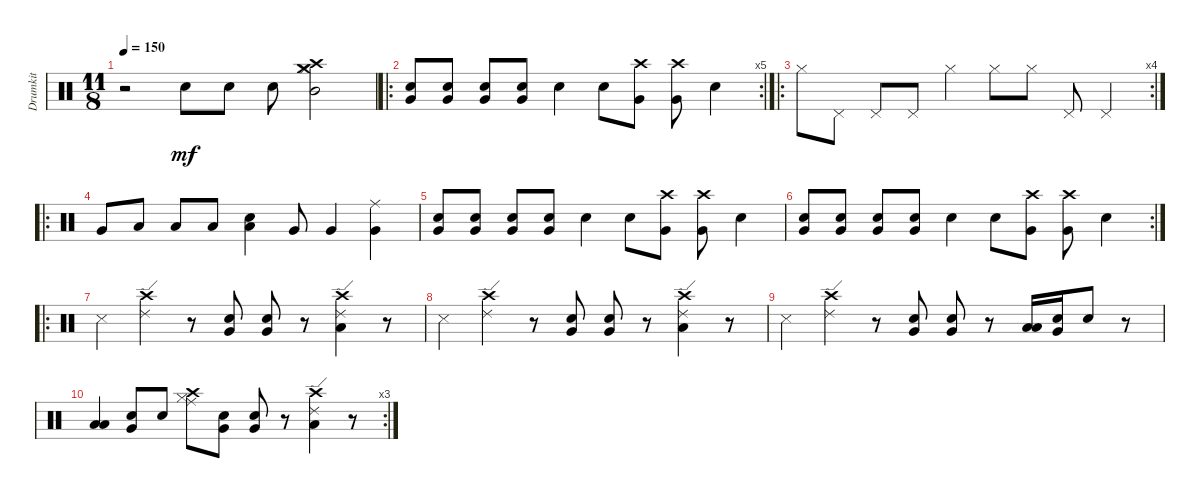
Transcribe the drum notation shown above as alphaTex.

\track ("Drumkit" "Drumkit") {instrument percussion}
\staff {score}
\articulation defaults
\ts (11 8)
\tempo 150
\clef neutral
\ks c
r.2{dy mf} "Snare (hit) 2".8 "Snare (hit) 2".8 "Snare (hit) 2".8 ("Hi-Hat (closed)" "Crash high (hit)" "Crash medium (hit)" "Mid Tom (hit)").2 |
\ro
\rc 5
("Snare (hit) 2" "Very Low Tom (hit)").8 ("Very Low Tom (hit)" "Snare (hit) 2").8 ("Very Low Tom (hit)" "Snare (hit) 2").8 ("Very Low Tom (hit)" "Snare (hit) 2").8 "Snare (hit) 2".4 "Snare (hit) 2".8 ("Very Low Tom (hit)" "Crash high (hit)").8 ("Very Low Tom (hit)" "Crash high (hit)").8 "Snare (hit) 2".4 |
\ro
\rc 4 "Hi-Hat (closed)".8 "Pedal Hi-Hat (hit)".8 "Pedal Hi-Hat (hit)".8 "Pedal Hi-Hat (hit)".8 "Hi-Hat (closed)".4 "Hi-Hat (closed)".8 "Hi-Hat (closed)".8 "Pedal Hi-Hat (hit)".8 "Pedal Hi-Hat (hit)".4
|
\ro "Very Low Tom (hit)".8 "Low Floor Tom (hit)".8 "Low Floor Tom (hit)".8 "Low Floor Tom (hit)".8
("Low Floor Tom (hit)" "Snare (hit) 2").4 "Very Low Tom (hit)".8 "Very Low Tom (hit)".4 ("Ride (middle)" "Very Low Tom (hit)").4 |
("Snare (hit) 2" "Very Low Tom (hit)").8 ("Very Low Tom (hit)" "Snare (hit) 2").8 ("Very Low Tom (hit)" "Snare (hit) 2").8 ("Very Low Tom (hit)" "Snare (hit) 2").8 "Snare (hit) 2".4 "Snare (hit) 2".8 ("Very Low Tom (hit)" "Crash high (hit)").8 ("Very Low Tom (hit)" "Crash high (hit)").8 "Snare (hit) 2".4 |
\rc 2
("Snare (hit) 2" "Very Low Tom (hit)").8 ("Very Low Tom (hit)" "Snare (hit) 2").8 ("Very Low Tom (hit)" "Snare (hit) 2").8 ("Very Low Tom (hit)" "Snare (hit) 2").8 "Snare (hit) 2".4 "Snare (hit) 2".8 ("Very Low Tom (hit)" "Crash high (hit)").8 ("Very Low Tom (hit)" "Crash high (hit)").8 "Snare (hit) 2".4 |
\ro "Snare (side stick) 3".4
("Ride (edge) 2" "Crash high (hit)").4 r.8 ("Very Low Tom (hit)" "Snare (hit) 2").8 ("Very Low Tom (hit)" "Snare (hit) 2").8 r.8 ("Ride (edge) 2" "Crash high (hit)" "Low Floor Tom (hit)").4 r.8 |
"Snare (side stick) 3".4 ("Ride (edge) 2" "Crash high (hit)").4 r.8 ("Very Low Tom (hit)" "Snare (hit) 2").8 ("Very Low Tom (hit)" "Snare (hit) 2").8 r.8 ("Ride (edge) 2" "Crash high (hit)" "Low Floor Tom (hit)").4 r.8 |
"Snare (side stick) 3".4 ("Ride (edge) 2" "Crash high (hit)").4 r.8 ("Very Low Tom (hit)" "Snare (hit) 2").8 ("Very Low Tom (hit)" "Snare (hit) 2").8 r.8 ("Low Tom (hit)" "Low Floor Tom (hit)").16 ("Snare (hit) 2" "Very Low Tom (hit)").16 "Snare (hit) 2".8 r.8 |
\rc 3
("Low Tom (hit)" "Low Floor Tom (hit)").4 ("Snare (hit) 2" "Very Low Tom (hit)").8 "Snare (hit) 2".8 ("Ride (middle)" "Hi-Hat (closed)" "Crash high (hit)").8 ("Very Low Tom (hit)" "Snare (hit) 2").8 ("Very Low Tom (hit)" "Snare (hit) 2").8 r.8 ("Ride (edge) 2" "Crash high (hit)" "Low Floor Tom (hit)").4 r.8
